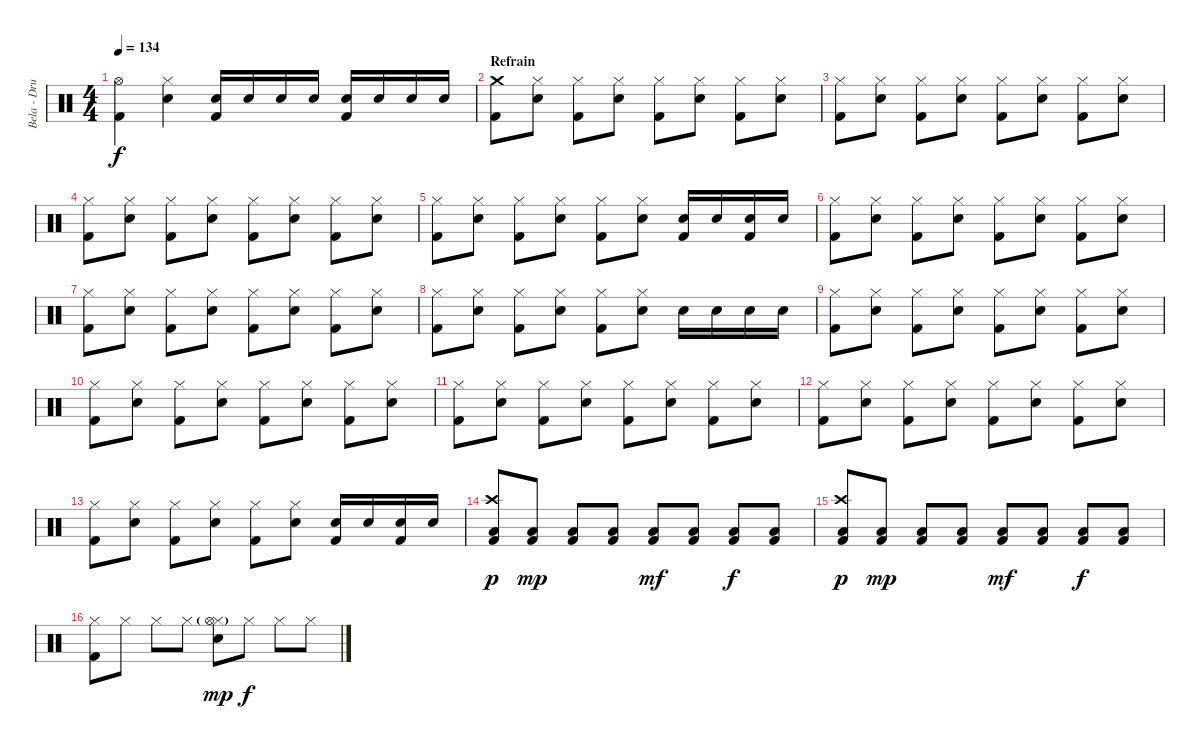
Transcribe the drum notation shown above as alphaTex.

\track ("Bela - Drums" "Bela - Dru") {instrument percussion}
\staff {score}
\articulation defaults
\ts (4 4)
\tempo 134
\clef neutral
\ks c
("Hi-Hat (open)" "Kick (hit) 2").4{dy f} ("Hi-Hat (closed)" "Electric Snare (hit)").4 ("Electric Snare (hit)" "Kick (hit) 2").16 "Electric Snare (hit)".16 "Electric Snare (hit)".16 "Electric Snare (hit)".16 ("Electric Snare (hit)" "Kick (hit) 2").16 "Electric Snare (hit)".16 "Electric Snare (hit)".16 "Electric Snare (hit)".16 |
\section ("" "Refrain")
("Crash medium (hit)" "Kick (hit) 2").8 ("Hi-Hat (closed)" "Electric Snare (hit)").8 ("Hi-Hat (closed)" "Kick (hit) 2").8 ("Hi-Hat (closed)" "Electric Snare (hit)").8 ("Hi-Hat (closed)" "Kick (hit) 2").8 ("Hi-Hat (closed)" "Electric Snare (hit)").8 ("Hi-Hat (closed)" "Kick (hit) 2").8 ("Hi-Hat (closed)" "Electric Snare (hit)").8 |
("Hi-Hat (closed)" "Kick (hit) 2").8 ("Hi-Hat (closed)" "Electric Snare (hit)").8 ("Hi-Hat (closed)" "Kick (hit) 2").8 ("Hi-Hat (closed)" "Electric Snare (hit)").8 ("Hi-Hat (closed)" "Kick (hit) 2").8 ("Hi-Hat (closed)" "Electric Snare (hit)").8 ("Hi-Hat (closed)" "Kick (hit) 2").8 ("Hi-Hat (closed)" "Electric Snare (hit)").8 |
("Hi-Hat (closed)" "Kick (hit) 2").8 ("Hi-Hat (closed)" "Electric Snare (hit)").8 ("Hi-Hat (closed)" "Kick (hit) 2").8 ("Hi-Hat (closed)" "Electric Snare (hit)").8 ("Hi-Hat (closed)" "Kick (hit) 2").8 ("Hi-Hat (closed)" "Electric Snare (hit)").8 ("Hi-Hat (closed)" "Kick (hit) 2").8 ("Hi-Hat (closed)" "Electric Snare (hit)").8 |
("Hi-Hat (closed)" "Kick (hit) 2").8 ("Hi-Hat (closed)" "Electric Snare (hit)").8 ("Hi-Hat (closed)" "Kick (hit) 2").8 ("Hi-Hat (closed)" "Electric Snare (hit)").8 ("Hi-Hat (closed)" "Kick (hit) 2").8 ("Hi-Hat (closed)" "Electric Snare (hit)").8 ("Electric Snare (hit)" "Kick (hit) 2").16 "Electric Snare (hit)".16 ("Electric Snare (hit)" "Kick (hit) 2").16 "Electric Snare (hit)".16 |
("Hi-Hat (closed)" "Kick (hit) 2").8 ("Hi-Hat (closed)" "Electric Snare (hit)").8 ("Hi-Hat (closed)" "Kick (hit) 2").8 ("Hi-Hat (closed)" "Electric Snare (hit)").8 ("Hi-Hat (closed)" "Kick (hit) 2").8 ("Hi-Hat (closed)" "Electric Snare (hit)").8 ("Hi-Hat (closed)" "Kick (hit) 2").8 ("Hi-Hat (closed)" "Electric Snare (hit)").8 |
("Hi-Hat (closed)" "Kick (hit) 2").8 ("Hi-Hat (closed)" "Electric Snare (hit)").8 ("Hi-Hat (closed)" "Kick (hit) 2").8 ("Hi-Hat (closed)" "Electric Snare (hit)").8 ("Hi-Hat (closed)" "Kick (hit) 2").8 ("Hi-Hat (closed)" "Electric Snare (hit)").8 ("Hi-Hat (closed)" "Kick (hit) 2").8 ("Hi-Hat (closed)" "Electric Snare (hit)").8 |
("Hi-Hat (closed)" "Kick (hit) 2").8 ("Hi-Hat (closed)" "Electric Snare (hit)").8 ("Hi-Hat (closed)" "Kick (hit) 2").8 ("Hi-Hat (closed)" "Electric Snare (hit)").8 ("Hi-Hat (closed)" "Kick (hit) 2").8 ("Hi-Hat (closed)" "Electric Snare (hit)").8 "Electric Snare (hit)".16 "Electric Snare (hit)".16 "Electric Snare (hit)".16 "Electric Snare (hit)".16 |
("Hi-Hat (closed)" "Kick (hit) 2").8 ("Hi-Hat (closed)" "Electric Snare (hit)").8 ("Hi-Hat (closed)" "Kick (hit) 2").8 ("Hi-Hat (closed)" "Electric Snare (hit)").8 ("Hi-Hat (closed)" "Kick (hit) 2").8 ("Hi-Hat (closed)" "Electric Snare (hit)").8 ("Hi-Hat (closed)" "Kick (hit) 2").8 ("Hi-Hat (closed)" "Electric Snare (hit)").8 |
("Hi-Hat (closed)" "Kick (hit) 2").8 ("Hi-Hat (closed)" "Electric Snare (hit)").8 ("Hi-Hat (closed)" "Kick (hit) 2").8 ("Hi-Hat (closed)" "Electric Snare (hit)").8 ("Hi-Hat (closed)" "Kick (hit) 2").8 ("Hi-Hat (closed)" "Electric Snare (hit)").8 ("Hi-Hat (closed)" "Kick (hit) 2").8 ("Hi-Hat (closed)" "Electric Snare (hit)").8 |
("Hi-Hat (closed)" "Kick (hit) 2").8 ("Hi-Hat (closed)" "Electric Snare (hit)").8 ("Hi-Hat (closed)" "Kick (hit) 2").8 ("Hi-Hat (closed)" "Electric Snare (hit)").8 ("Hi-Hat (closed)" "Kick (hit) 2").8 ("Hi-Hat (closed)" "Electric Snare (hit)").8 ("Hi-Hat (closed)" "Kick (hit) 2").8 ("Hi-Hat (closed)" "Electric Snare (hit)").8 |
("Hi-Hat (closed)" "Kick (hit) 2").8 ("Hi-Hat (closed)" "Electric Snare (hit)").8 ("Hi-Hat (closed)" "Kick (hit) 2").8 ("Hi-Hat (closed)" "Electric Snare (hit)").8 ("Hi-Hat (closed)" "Kick (hit) 2").8 ("Hi-Hat (closed)" "Electric Snare (hit)").8 ("Hi-Hat (closed)" "Kick (hit) 2").8 ("Hi-Hat (closed)" "Electric Snare (hit)").8 |
("Hi-Hat (closed)" "Kick (hit) 2").8 ("Hi-Hat (closed)" "Electric Snare (hit)").8 ("Hi-Hat (closed)" "Kick (hit) 2").8 ("Hi-Hat (closed)" "Electric Snare (hit)").8 ("Hi-Hat (closed)" "Kick (hit) 2").8 ("Hi-Hat (closed)" "Electric Snare (hit)").8 ("Electric Snare (hit)" "Kick (hit) 2").16 "Electric Snare (hit)".16 ("Electric Snare (hit)" "Kick (hit) 2").16 "Electric Snare (hit)".16 |
("Crash high (hit)" "Low Floor Tom (hit)" "Kick (hit) 2").8{dy p} ("Low Floor Tom (hit)" "Kick (hit) 2").8{dy mp} ("Low Floor Tom (hit)" "Kick (hit) 2").8 ("Low Floor Tom (hit)" "Kick (hit) 2").8 ("Low Floor Tom (hit)" "Kick (hit) 2").8{dy mf} ("Low Floor Tom (hit)" "Kick (hit) 2").8 ("Low Floor Tom (hit)" "Kick (hit) 2").8{dy f} ("Low Floor Tom (hit)" "Kick (hit) 2").8 |
("Crash high (hit)" "Low Floor Tom (hit)" "Kick (hit) 2").8{dy p} ("Low Floor Tom (hit)" "Kick (hit) 2").8{dy mp} ("Low Floor Tom (hit)" "Kick (hit) 2").8 ("Low Floor Tom (hit)" "Kick (hit) 2").8 ("Low Floor Tom (hit)" "Kick (hit) 2").8{dy mf} ("Low Floor Tom (hit)" "Kick (hit) 2").8 ("Low Floor Tom (hit)" "Kick (hit) 2").8{dy f} ("Low Floor Tom (hit)" "Kick (hit) 2").8 |
("Hi-Hat (closed)" "Kick (hit) 2").8 "Hi-Hat (closed)".8 "Hi-Hat (closed)".8 "Hi-Hat (closed)".8 ("Hi-Hat (closed)" "Hi-Hat (open)"{g} "Electric Snare (hit)").8{dy mp} "Hi-Hat (closed)".8{dy f} "Hi-Hat (closed)".8 "Hi-Hat (closed)".8
